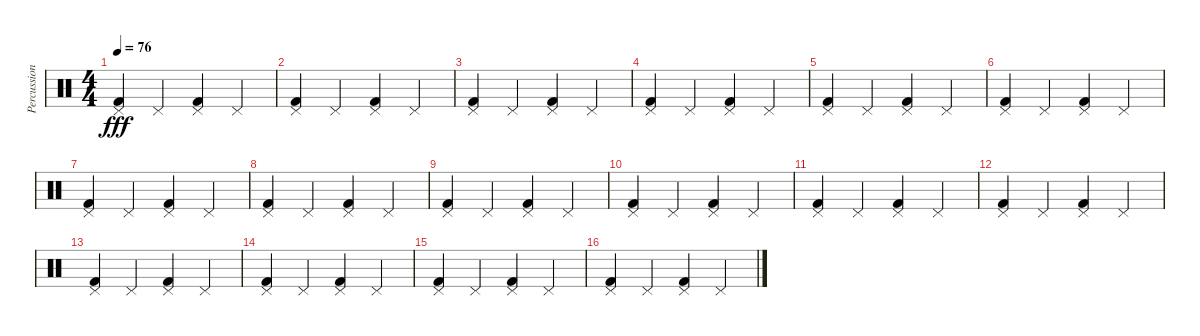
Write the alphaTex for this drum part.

\track ("Percussion" "Percussion") {instrument percussion}
\staff {score}
\articulation defaults
\ts (4 4)
\tempo 76
\clef neutral
\ks c
("Pedal Hi-Hat (hit)" "Kick (hit) 2").4{dy fff} "Pedal Hi-Hat (hit)".4 ("Pedal Hi-Hat (hit)" "Kick (hit) 2").4 "Pedal Hi-Hat (hit)".4 |
("Pedal Hi-Hat (hit)" "Kick (hit) 2").4 "Pedal Hi-Hat (hit)".4 ("Pedal Hi-Hat (hit)" "Kick (hit) 2").4 "Pedal Hi-Hat (hit)".4 |
("Pedal Hi-Hat (hit)" "Kick (hit) 2").4 "Pedal Hi-Hat (hit)".4 ("Pedal Hi-Hat (hit)" "Kick (hit) 2").4 "Pedal Hi-Hat (hit)".4 |
("Pedal Hi-Hat (hit)" "Kick (hit) 2").4 "Pedal Hi-Hat (hit)".4 ("Pedal Hi-Hat (hit)" "Kick (hit) 2").4 "Pedal Hi-Hat (hit)".4 |
("Pedal Hi-Hat (hit)" "Kick (hit) 2").4 "Pedal Hi-Hat (hit)".4 ("Pedal Hi-Hat (hit)" "Kick (hit) 2").4 "Pedal Hi-Hat (hit)".4 |
("Pedal Hi-Hat (hit)" "Kick (hit) 2").4 "Pedal Hi-Hat (hit)".4 ("Pedal Hi-Hat (hit)" "Kick (hit) 2").4 "Pedal Hi-Hat (hit)".4 |
("Pedal Hi-Hat (hit)" "Kick (hit) 2").4 "Pedal Hi-Hat (hit)".4 ("Pedal Hi-Hat (hit)" "Kick (hit) 2").4 "Pedal Hi-Hat (hit)".4 |
("Pedal Hi-Hat (hit)" "Kick (hit) 2").4 "Pedal Hi-Hat (hit)".4 ("Pedal Hi-Hat (hit)" "Kick (hit) 2").4 "Pedal Hi-Hat (hit)".4 |
("Pedal Hi-Hat (hit)" "Kick (hit) 2").4 "Pedal Hi-Hat (hit)".4 ("Pedal Hi-Hat (hit)" "Kick (hit) 2").4 "Pedal Hi-Hat (hit)".4 |
("Pedal Hi-Hat (hit)" "Kick (hit) 2").4 "Pedal Hi-Hat (hit)".4 ("Pedal Hi-Hat (hit)" "Kick (hit) 2").4 "Pedal Hi-Hat (hit)".4 |
("Pedal Hi-Hat (hit)" "Kick (hit) 2").4 "Pedal Hi-Hat (hit)".4 ("Pedal Hi-Hat (hit)" "Kick (hit) 2").4 "Pedal Hi-Hat (hit)".4 |
("Pedal Hi-Hat (hit)" "Kick (hit) 2").4 "Pedal Hi-Hat (hit)".4 ("Pedal Hi-Hat (hit)" "Kick (hit) 2").4 "Pedal Hi-Hat (hit)".4 |
("Pedal Hi-Hat (hit)" "Kick (hit) 2").4 "Pedal Hi-Hat (hit)".4 ("Pedal Hi-Hat (hit)" "Kick (hit) 2").4 "Pedal Hi-Hat (hit)".4 |
("Pedal Hi-Hat (hit)" "Kick (hit) 2").4 "Pedal Hi-Hat (hit)".4 ("Pedal Hi-Hat (hit)" "Kick (hit) 2").4 "Pedal Hi-Hat (hit)".4 |
("Pedal Hi-Hat (hit)" "Kick (hit) 2").4 "Pedal Hi-Hat (hit)".4 ("Pedal Hi-Hat (hit)" "Kick (hit) 2").4 "Pedal Hi-Hat (hit)".4 |
("Pedal Hi-Hat (hit)" "Kick (hit) 2").4 "Pedal Hi-Hat (hit)".4 ("Pedal Hi-Hat (hit)" "Kick (hit) 2").4 "Pedal Hi-Hat (hit)".4
